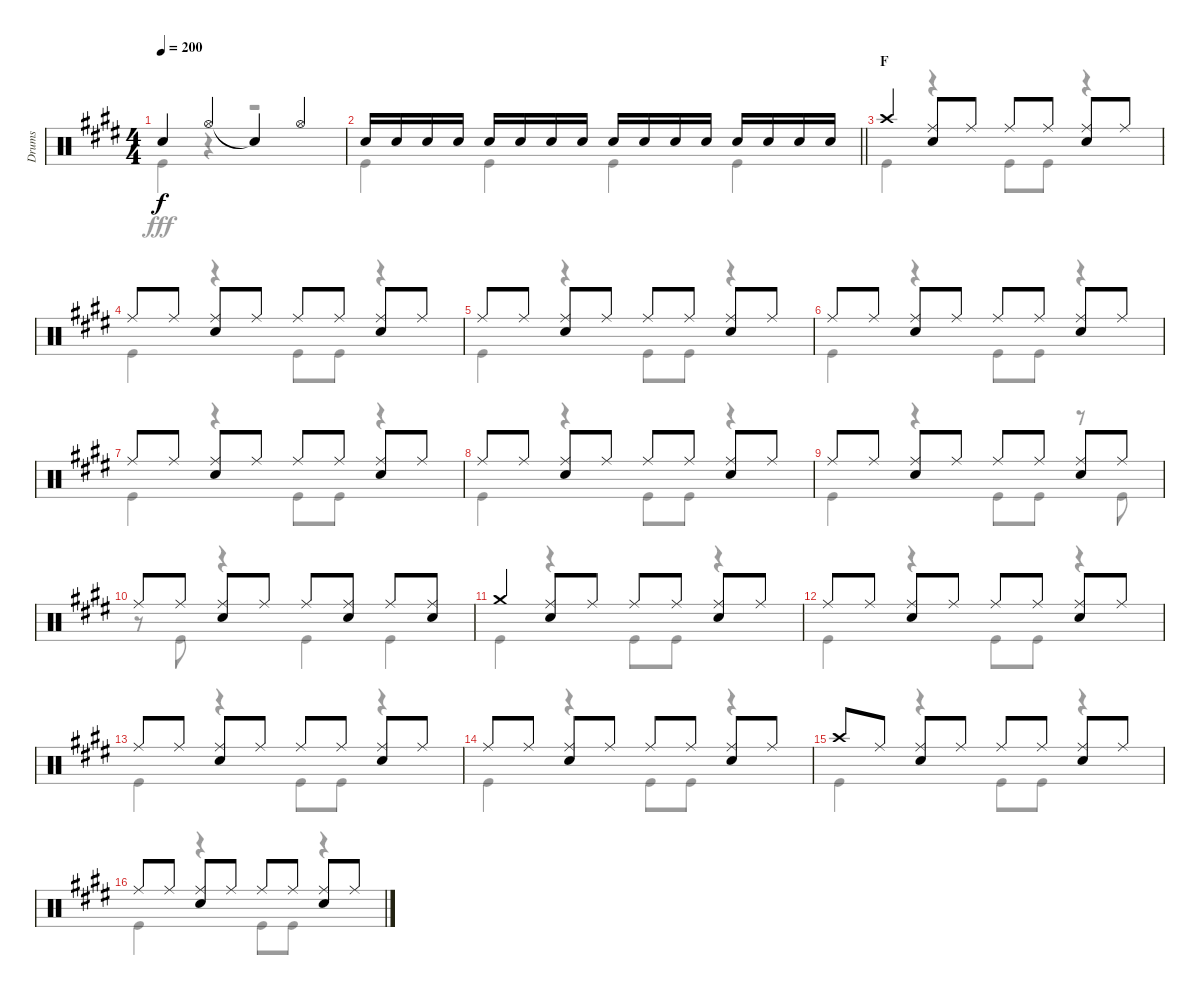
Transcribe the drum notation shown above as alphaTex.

\track ("Drums" "Drums") {instrument percussion}
\staff {score}
\articulation defaults
\voice
\ts (4 4)
\tempo 200
\clef neutral
\ks e "Snare (hit)"{t}.4{dy f} "Hi-Hat (open)".4 "Snare (hit)"{t}.4 "Hi-Hat (open)".4
|
\barLineRight lightlight "Snare (hit) 2".16 "Snare (hit) 2".16 "Snare (hit) 2".16 "Snare (hit) 2".16 "Snare (hit) 2".16 "Snare (hit) 2".16 "Snare (hit) 2".16 "Snare (hit) 2".16 "Snare (hit) 2".16 "Snare (hit) 2".16 "Snare (hit) 2".16 "Snare (hit) 2".16 "Snare (hit) 2".16 "Snare (hit) 2".16 "Snare (hit) 2".16 "Snare (hit) 2".16
|
\section ("" "F")
"Crash high (hit)".4 ("Ride (middle)" "Snare (hit) 2").8 "Ride (middle)".8 "Ride (middle)".8 "Ride (middle)".8 ("Ride (middle)" "Snare (hit) 2").8 "Ride (middle)".8 |
"Ride (middle)".8 "Ride (middle)".8 ("Ride (middle)" "Snare (hit) 2").8 "Ride (middle)".8 "Ride (middle)".8 "Ride (middle)".8 ("Ride (middle)" "Snare (hit) 2").8 "Ride (middle)".8 |
"Ride (middle)".8 "Ride (middle)".8 ("Ride (middle)" "Snare (hit) 2").8 "Ride (middle)".8 "Ride (middle)".8 "Ride (middle)".8 ("Ride (middle)" "Snare (hit) 2").8 "Ride (middle)".8 |
"Ride (middle)".8 "Ride (middle)".8 ("Ride (middle)" "Snare (hit) 2").8 "Ride (middle)".8 "Ride (middle)".8 "Ride (middle)".8 ("Ride (middle)" "Snare (hit) 2").8 "Ride (middle)".8 |
"Ride (middle)".8 "Ride (middle)".8 ("Ride (middle)" "Snare (hit) 2").8 "Ride (middle)".8 "Ride (middle)".8 "Ride (middle)".8 ("Ride (middle)" "Snare (hit) 2").8 "Ride (middle)".8 |
"Ride (middle)".8 "Ride (middle)".8 ("Ride (middle)" "Snare (hit) 2").8 "Ride (middle)".8 "Ride (middle)".8 "Ride (middle)".8 ("Ride (middle)" "Snare (hit) 2").8 "Ride (middle)".8 |
"Ride (middle)".8 "Ride (middle)".8 ("Ride (middle)" "Snare (hit) 2").8 "Ride (middle)".8 "Ride (middle)".8 "Ride (middle)".8 ("Ride (middle)" "Snare (hit) 2").8 "Ride (middle)".8 |
"Ride (middle)".8 "Ride (middle)".8 ("Ride (middle)" "Snare (hit) 2").8 "Ride (middle)".8 "Ride (middle)".8 ("Ride (middle)" "Snare (hit) 2").8 "Ride (middle)".8 ("Ride (middle)" "Snare (hit) 2").8 |
"Crash medium (hit)".4 ("Ride (middle)" "Snare (hit) 2").8 "Ride (middle)".8 "Ride (middle)".8 "Ride (middle)".8 ("Ride (middle)" "Snare (hit) 2").8 "Ride (middle)".8 |
"Ride (middle)".8 "Ride (middle)".8 ("Ride (middle)" "Snare (hit) 2").8 "Ride (middle)".8 "Ride (middle)".8 "Ride (middle)".8 ("Ride (middle)" "Snare (hit) 2").8 "Ride (middle)".8 |
"Ride (middle)".8 "Ride (middle)".8 ("Ride (middle)" "Snare (hit) 2").8 "Ride (middle)".8 "Ride (middle)".8 "Ride (middle)".8 ("Ride (middle)" "Snare (hit) 2").8 "Ride (middle)".8 |
"Ride (middle)".8 "Ride (middle)".8 ("Ride (middle)" "Snare (hit) 2").8 "Ride (middle)".8 "Ride (middle)".8 "Ride (middle)".8 ("Ride (middle)" "Snare (hit) 2").8 "Ride (middle)".8 |
"Crash high (hit)".8 "Ride (middle)".8 ("Ride (middle)" "Snare (hit) 2").8 "Ride (middle)".8 "Ride (middle)".8 "Ride (middle)".8 ("Ride (middle)" "Snare (hit) 2").8 "Ride (middle)".8 |
"Ride (middle)".8 "Ride (middle)".8 ("Ride (middle)" "Snare (hit) 2").8 "Ride (middle)".8 "Ride (middle)".8 "Ride (middle)".8 ("Ride (middle)" "Snare (hit) 2").8 "Ride (middle)".8
\voice
\clef neutral
\ottava regular
\simile none
\ks e "Kick (hit)".4{dy fff}
r.4 r.2 |
\barLineRight lightlight "Kick (hit)".4 "Kick (hit)".4 "Kick (hit)".4 "Kick (hit)".4
|
"Kick (hit)".4 r.4 "Kick (hit)".8 "Kick (hit)".8 r.4 |
"Kick (hit)".4 r.4 "Kick (hit)".8 "Kick (hit)".8 r.4 |
"Kick (hit)".4 r.4 "Kick (hit)".8 "Kick (hit)".8 r.4 |
"Kick (hit)".4 r.4 "Kick (hit)".8 "Kick (hit)".8 r.4 |
"Kick (hit)".4 r.4 "Kick (hit)".8 "Kick (hit)".8 r.4 |
"Kick (hit)".4 r.4 "Kick (hit)".8 "Kick (hit)".8 r.4 |
"Kick (hit)".4 r.4 "Kick (hit)".8 "Kick (hit)".8 r.8 "Kick (hit)".8 |
r.8 "Kick (hit)".8 r.4 "Kick (hit)".4 "Kick (hit)".4 |
"Kick (hit)".4 r.4 "Kick (hit)".8 "Kick (hit)".8 r.4 |
"Kick (hit)".4 r.4 "Kick (hit)".8 "Kick (hit)".8 r.4 |
"Kick (hit)".4 r.4 "Kick (hit)".8 "Kick (hit)".8 r.4 |
"Kick (hit)".4 r.4 "Kick (hit)".8 "Kick (hit)".8 r.4 |
"Kick (hit)".4 r.4 "Kick (hit)".8 "Kick (hit)".8 r.4 |
"Kick (hit)".4 r.4 "Kick (hit)".8 "Kick (hit)".8 r.4
